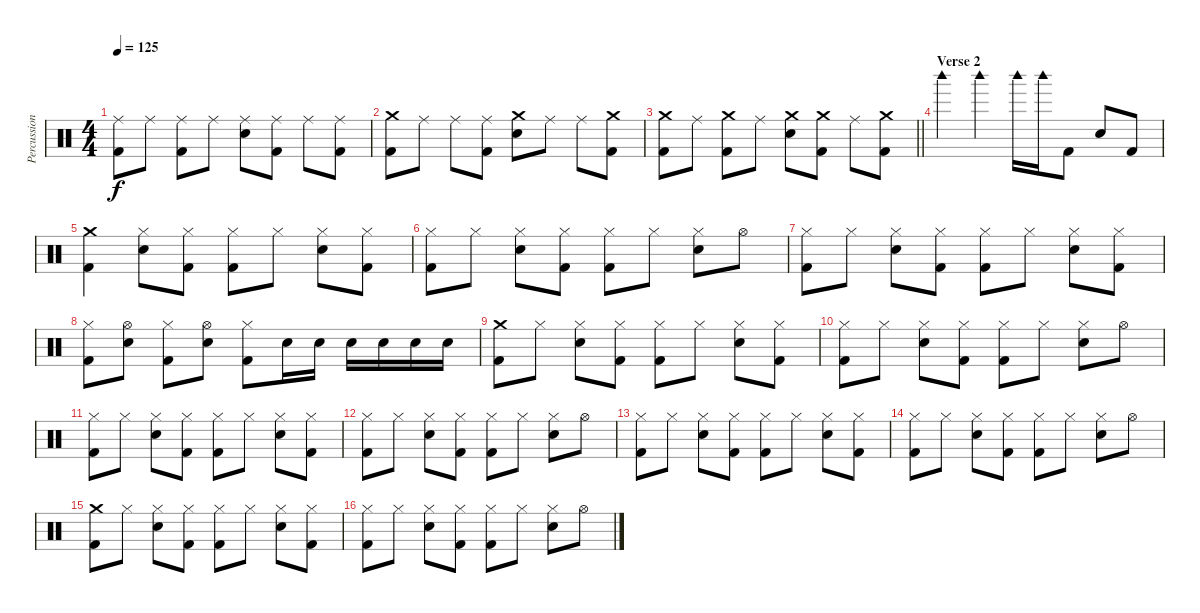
\track ("Percussion" "Percussion") {instrument percussion}
\staff {score}
\articulation defaults
\ts (4 4)
\tempo 125
\clef neutral
\ks c
("Ride (middle)" "Kick (hit) 2").8{dy f} "Ride (middle)".8 ("Ride (middle)" "Kick (hit) 2").8 "Ride (middle)".8 ("Ride (middle)" "Electric Snare (hit)").8 ("Ride (middle)" "Kick (hit) 2").8 "Ride (middle)".8 ("Ride (middle)" "Kick (hit) 2").8 |
("Crash medium (hit)" "Kick (hit) 2").8 "Ride (middle)".8 "Ride (middle)".8 ("Ride (middle)" "Kick (hit) 2").8 ("Crash medium (hit)" "Electric Snare (hit)").8 "Ride (middle)".8 "Ride (middle)".8 ("Crash medium (hit)" "Kick (hit) 2").8 |
\barLineRight lightlight
("Crash medium (hit)" "Kick (hit) 2").8 "Ride (middle)".8 ("Crash medium (hit)" "Kick (hit) 2").8 "Ride (middle)".8 ("Crash medium (hit)" "Electric Snare (hit)").8 ("Crash medium (hit)" "Kick (hit) 2").8 "Ride (middle)".8 ("Crash medium (hit)" "Kick (hit) 2").8 |
\section ("" "Verse 2")
"Woodblock high (hit)".4 "Woodblock high (hit)".4 "Woodblock high (hit)".16 "Woodblock high (hit)".16 "Kick (hit) 2".8 "Electric Snare (hit)".8 "Kick (hit) 2".8 |
("Crash medium (hit)" "Kick (hit) 2").4 ("Hi-Hat (closed)" "Electric Snare (hit)").8 ("Hi-Hat (closed)" "Kick (hit) 2").8 ("Hi-Hat (closed)" "Kick (hit) 2").8 "Hi-Hat (closed)".8 ("Hi-Hat (closed)" "Electric Snare (hit)").8 ("Hi-Hat (closed)" "Kick (hit) 2").8 |
("Hi-Hat (closed)" "Kick (hit) 2").8 "Hi-Hat (closed)".8 ("Hi-Hat (closed)" "Electric Snare (hit)").8 ("Hi-Hat (closed)" "Kick (hit) 2").8 ("Hi-Hat (closed)" "Kick (hit) 2").8 "Hi-Hat (closed)".8 ("Hi-Hat (closed)" "Electric Snare (hit)").8 "Hi-Hat (open)".8 |
("Hi-Hat (closed)" "Kick (hit) 2").8 "Hi-Hat (closed)".8 ("Hi-Hat (closed)" "Electric Snare (hit)").8 ("Hi-Hat (closed)" "Kick (hit) 2").8 ("Hi-Hat (closed)" "Kick (hit) 2").8 "Hi-Hat (closed)".8 ("Hi-Hat (closed)" "Electric Snare (hit)").8 ("Hi-Hat (closed)" "Kick (hit) 2").8 |
("Hi-Hat (closed)" "Kick (hit) 2").8 ("Hi-Hat (open)" "Electric Snare (hit)").8 ("Hi-Hat (closed)" "Kick (hit) 2").8 ("Hi-Hat (open)" "Electric Snare (hit)").8 ("Hi-Hat (closed)" "Kick (hit) 2").8 "Electric Snare (hit)".16 "Electric Snare (hit)".16 "Electric Snare (hit)".16 "Electric Snare (hit)".16 "Electric Snare (hit)".16 "Electric Snare (hit)".16 |
("Crash medium (hit)" "Kick (hit) 2").8 "Hi-Hat (closed)".8 ("Hi-Hat (closed)" "Electric Snare (hit)").8 ("Hi-Hat (closed)" "Kick (hit) 2").8 ("Hi-Hat (closed)" "Kick (hit) 2").8 "Hi-Hat (closed)".8 ("Hi-Hat (closed)" "Electric Snare (hit)").8 ("Hi-Hat (closed)" "Kick (hit) 2").8 |
("Hi-Hat (closed)" "Kick (hit) 2").8 "Hi-Hat (closed)".8 ("Hi-Hat (closed)" "Electric Snare (hit)").8 ("Hi-Hat (closed)" "Kick (hit) 2").8 ("Hi-Hat (closed)" "Kick (hit) 2").8 "Hi-Hat (closed)".8 ("Hi-Hat (closed)" "Electric Snare (hit)").8 "Hi-Hat (open)".8 |
("Hi-Hat (closed)" "Kick (hit) 2").8 "Hi-Hat (closed)".8 ("Hi-Hat (closed)" "Electric Snare (hit)").8 ("Hi-Hat (closed)" "Kick (hit) 2").8 ("Hi-Hat (closed)" "Kick (hit) 2").8 "Hi-Hat (closed)".8 ("Hi-Hat (closed)" "Electric Snare (hit)").8 ("Hi-Hat (closed)" "Kick (hit) 2").8 |
("Hi-Hat (closed)" "Kick (hit) 2").8 "Hi-Hat (closed)".8 ("Hi-Hat (closed)" "Electric Snare (hit)").8 ("Hi-Hat (closed)" "Kick (hit) 2").8 ("Hi-Hat (closed)" "Kick (hit) 2").8 "Hi-Hat (closed)".8 ("Hi-Hat (closed)" "Electric Snare (hit)").8 "Hi-Hat (open)".8 |
("Hi-Hat (closed)" "Kick (hit) 2").8 "Hi-Hat (closed)".8 ("Hi-Hat (closed)" "Electric Snare (hit)").8 ("Hi-Hat (closed)" "Kick (hit) 2").8 ("Hi-Hat (closed)" "Kick (hit) 2").8 "Hi-Hat (closed)".8 ("Hi-Hat (closed)" "Electric Snare (hit)").8 ("Hi-Hat (closed)" "Kick (hit) 2").8 |
("Hi-Hat (closed)" "Kick (hit) 2").8 "Hi-Hat (closed)".8 ("Hi-Hat (closed)" "Electric Snare (hit)").8 ("Hi-Hat (closed)" "Kick (hit) 2").8 ("Hi-Hat (closed)" "Kick (hit) 2").8 "Hi-Hat (closed)".8 ("Hi-Hat (closed)" "Electric Snare (hit)").8 "Hi-Hat (open)".8 |
("Crash medium (hit)" "Kick (hit) 2").8 "Hi-Hat (closed)".8 ("Hi-Hat (closed)" "Electric Snare (hit)").8 ("Hi-Hat (closed)" "Kick (hit) 2").8 ("Hi-Hat (closed)" "Kick (hit) 2").8 "Hi-Hat (closed)".8 ("Hi-Hat (closed)" "Electric Snare (hit)").8 ("Hi-Hat (closed)" "Kick (hit) 2").8 |
("Hi-Hat (closed)" "Kick (hit) 2").8 "Hi-Hat (closed)".8 ("Hi-Hat (closed)" "Electric Snare (hit)").8 ("Hi-Hat (closed)" "Kick (hit) 2").8 ("Hi-Hat (closed)" "Kick (hit) 2").8 "Hi-Hat (closed)".8 ("Hi-Hat (closed)" "Electric Snare (hit)").8 "Hi-Hat (open)".8
